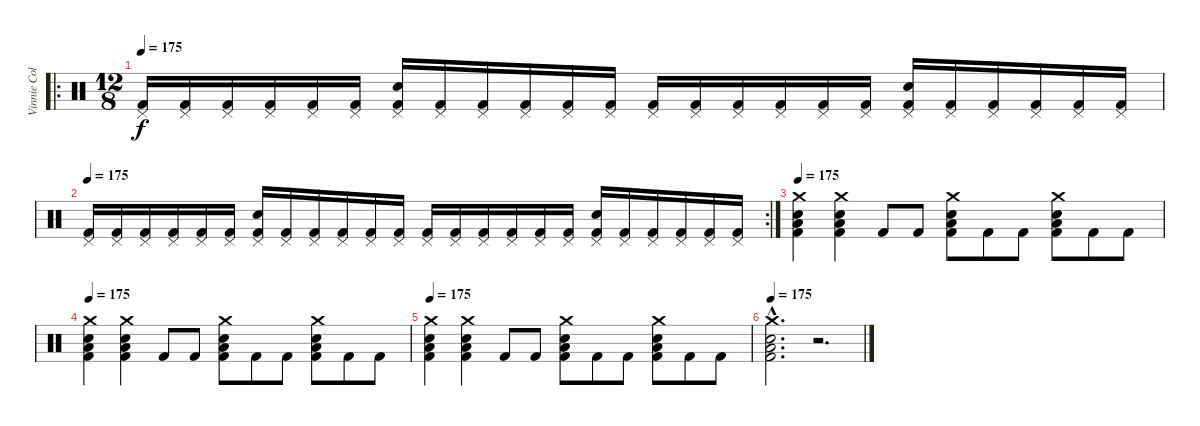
\track ("Vinnie Colaiuta" "Vinnie Col") {instrument percussion}
\staff {score}
\articulation defaults
\ro
\ts (12 8)
\tempo 175
\clef neutral
\ks c
("Kick (hit) 2" "Pedal Hi-Hat (hit)").16{dy f} ("Kick (hit) 2" "Pedal Hi-Hat (hit)").16 ("Kick (hit) 2" "Pedal Hi-Hat (hit)").16 ("Kick (hit) 2" "Pedal Hi-Hat (hit)").16 ("Kick (hit) 2" "Pedal Hi-Hat (hit)").16 ("Kick (hit) 2" "Pedal Hi-Hat (hit)").16 ("Kick (hit) 2" "Pedal Hi-Hat (hit)" "Snare (hit) 2").16 ("Kick (hit) 2" "Pedal Hi-Hat (hit)").16 ("Kick (hit) 2" "Pedal Hi-Hat (hit)").16 ("Kick (hit) 2" "Pedal Hi-Hat (hit)").16 ("Kick (hit) 2" "Pedal Hi-Hat (hit)").16 ("Kick (hit) 2" "Pedal Hi-Hat (hit)").16 ("Kick (hit) 2" "Pedal Hi-Hat (hit)").16 ("Kick (hit) 2" "Pedal Hi-Hat (hit)").16 ("Kick (hit) 2" "Pedal Hi-Hat (hit)").16 ("Kick (hit) 2" "Pedal Hi-Hat (hit)").16 ("Kick (hit) 2" "Pedal Hi-Hat (hit)").16 ("Kick (hit) 2" "Pedal Hi-Hat (hit)").16 ("Kick (hit) 2" "Pedal Hi-Hat (hit)" "Snare (hit) 2").16 ("Kick (hit) 2" "Pedal Hi-Hat (hit)").16 ("Kick (hit) 2" "Pedal Hi-Hat (hit)").16 ("Kick (hit) 2" "Pedal Hi-Hat (hit)").16 ("Kick (hit) 2" "Pedal Hi-Hat (hit)").16 ("Kick (hit) 2" "Pedal Hi-Hat (hit)").16 |
\rc 2
\tempo 175
("Kick (hit) 2" "Pedal Hi-Hat (hit)").16 ("Kick (hit) 2" "Pedal Hi-Hat (hit)").16 ("Kick (hit) 2" "Pedal Hi-Hat (hit)").16 ("Kick (hit) 2" "Pedal Hi-Hat (hit)").16 ("Kick (hit) 2" "Pedal Hi-Hat (hit)").16 ("Kick (hit) 2" "Pedal Hi-Hat (hit)").16 ("Kick (hit) 2" "Pedal Hi-Hat (hit)" "Snare (hit) 2").16 ("Kick (hit) 2" "Pedal Hi-Hat (hit)").16 ("Kick (hit) 2" "Pedal Hi-Hat (hit)").16 ("Kick (hit) 2" "Pedal Hi-Hat (hit)").16 ("Kick (hit) 2" "Pedal Hi-Hat (hit)").16 ("Kick (hit) 2" "Pedal Hi-Hat (hit)").16 ("Kick (hit) 2" "Pedal Hi-Hat (hit)").16 ("Kick (hit) 2" "Pedal Hi-Hat (hit)").16 ("Kick (hit) 2" "Pedal Hi-Hat (hit)").16 ("Kick (hit) 2" "Pedal Hi-Hat (hit)").16 ("Kick (hit) 2" "Pedal Hi-Hat (hit)").16 ("Kick (hit) 2" "Pedal Hi-Hat (hit)").16 ("Kick (hit) 2" "Pedal Hi-Hat (hit)" "Snare (hit) 2").16 ("Kick (hit) 2" "Pedal Hi-Hat (hit)").16 ("Kick (hit) 2" "Pedal Hi-Hat (hit)").16 ("Kick (hit) 2" "Pedal Hi-Hat (hit)").16 ("Kick (hit) 2" "Pedal Hi-Hat (hit)").16 ("Kick (hit) 2" "Pedal Hi-Hat (hit)").16 |
\tempo 175
("Kick (hit) 2" "Snare (hit) 2" "Low Floor Tom (hit)" "Crash medium (hit)").4 ("Kick (hit) 2" "Snare (hit) 2" "Low Floor Tom (hit)" "Crash medium (hit)").4 "Kick (hit) 2".8 "Kick (hit) 2".8 ("Kick (hit) 2" "Snare (hit) 2" "Low Floor Tom (hit)" "Crash medium (hit)").8 "Kick (hit) 2".8 "Kick (hit) 2".8 ("Kick (hit) 2" "Snare (hit) 2" "Low Floor Tom (hit)" "Crash medium (hit)").8 "Kick (hit) 2".8 "Kick (hit) 2".8 |
\tempo 175
("Kick (hit) 2" "Snare (hit) 2" "Low Floor Tom (hit)" "Crash medium (hit)").4 ("Kick (hit) 2" "Snare (hit) 2" "Low Floor Tom (hit)" "Crash medium (hit)").4 "Kick (hit) 2".8 "Kick (hit) 2".8 ("Kick (hit) 2" "Snare (hit) 2" "Low Floor Tom (hit)" "Crash medium (hit)").8 "Kick (hit) 2".8 "Kick (hit) 2".8 ("Kick (hit) 2" "Snare (hit) 2" "Low Floor Tom (hit)" "Crash medium (hit)").8 "Kick (hit) 2".8 "Kick (hit) 2".8 |
\tempo 175
("Kick (hit) 2" "Snare (hit) 2" "Low Floor Tom (hit)" "Crash medium (hit)").4 ("Kick (hit) 2" "Snare (hit) 2" "Low Floor Tom (hit)" "Crash medium (hit)").4 "Kick (hit) 2".8 "Kick (hit) 2".8 ("Kick (hit) 2" "Snare (hit) 2" "Low Floor Tom (hit)" "Crash medium (hit)").8 "Kick (hit) 2".8 "Kick (hit) 2".8 ("Kick (hit) 2" "Snare (hit) 2" "Low Floor Tom (hit)" "Crash medium (hit)").8 "Kick (hit) 2".8 "Kick (hit) 2".8 |
\tempo 175
("Kick (hit) 2"{hac} "Snare (hit) 2"{hac} "Low Floor Tom (hit)"{hac} "Crash medium (hit)"{hac}).2{d} r.2{d}
